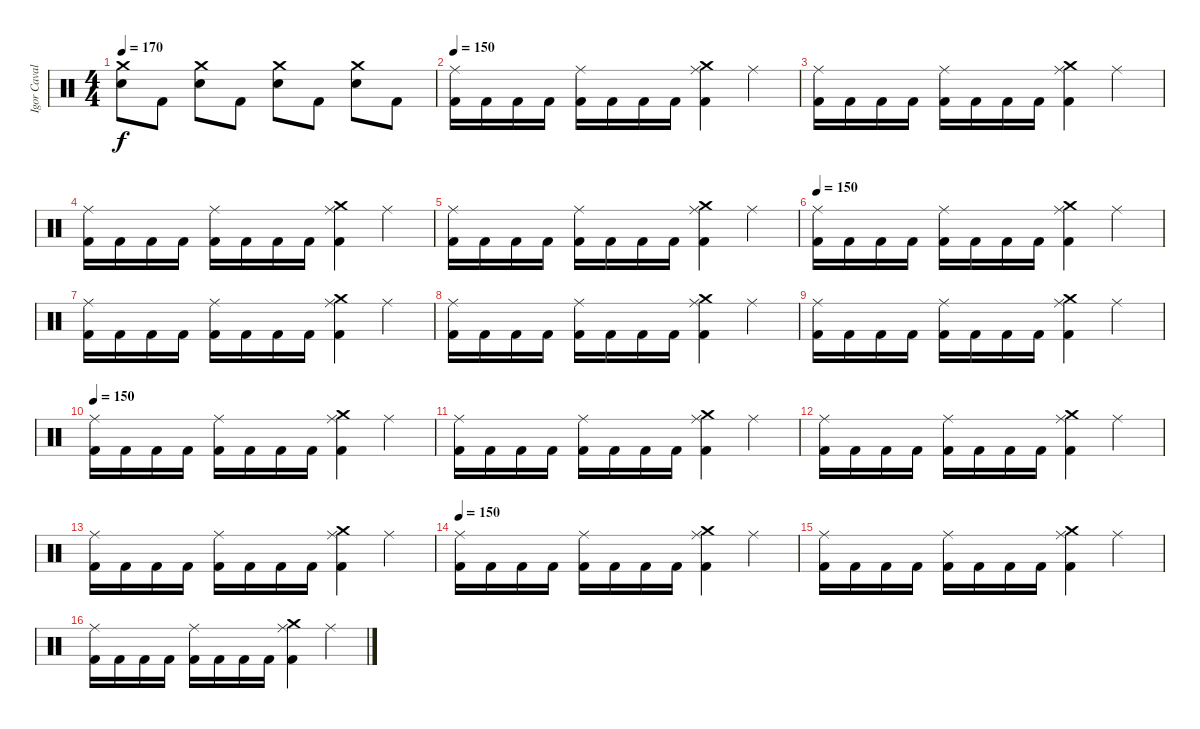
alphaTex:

\track ("Igor Cavalera" "Igor Caval") {instrument percussion}
\staff {score}
\articulation defaults
\ts (4 4)
\tempo 170
\clef neutral
\ks c
("Crash medium (hit)" "Snare (hit) 2").8{dy f} "Kick (hit) 2".8 ("Crash medium (hit)" "Snare (hit) 2").8 "Kick (hit) 2".8 ("Crash medium (hit)" "Snare (hit) 2").8 "Kick (hit) 2".8 ("Crash medium (hit)" "Snare (hit) 2").8 "Kick (hit) 2".8 |
\tempo 150
("Ride (middle)" "Kick (hit) 2").16 "Kick (hit) 2".16 "Kick (hit) 2".16 "Kick (hit) 2".16 ("Ride (middle)" "Kick (hit) 2").16 "Kick (hit) 2".16 "Kick (hit) 2".16 "Kick (hit) 2".16 ("Crash medium (hit)" "Ride (middle)" "Kick (hit) 2").4 "Ride (middle)".4 |
("Ride (middle)" "Kick (hit) 2").16 "Kick (hit) 2".16 "Kick (hit) 2".16 "Kick (hit) 2".16 ("Ride (middle)" "Kick (hit) 2").16 "Kick (hit) 2".16 "Kick (hit) 2".16 "Kick (hit) 2".16 ("Crash medium (hit)" "Ride (middle)" "Kick (hit) 2").4 "Ride (middle)".4 |
("Ride (middle)" "Kick (hit) 2").16 "Kick (hit) 2".16 "Kick (hit) 2".16 "Kick (hit) 2".16 ("Ride (middle)" "Kick (hit) 2").16 "Kick (hit) 2".16 "Kick (hit) 2".16 "Kick (hit) 2".16 ("Crash medium (hit)" "Ride (middle)" "Kick (hit) 2").4 "Ride (middle)".4 |
("Ride (middle)" "Kick (hit) 2").16 "Kick (hit) 2".16 "Kick (hit) 2".16 "Kick (hit) 2".16 ("Ride (middle)" "Kick (hit) 2").16 "Kick (hit) 2".16 "Kick (hit) 2".16 "Kick (hit) 2".16 ("Crash medium (hit)" "Ride (middle)" "Kick (hit) 2").4 "Ride (middle)".4 |
\tempo 150
("Ride (middle)" "Kick (hit) 2").16 "Kick (hit) 2".16 "Kick (hit) 2".16 "Kick (hit) 2".16 ("Ride (middle)" "Kick (hit) 2").16 "Kick (hit) 2".16 "Kick (hit) 2".16 "Kick (hit) 2".16 ("Crash medium (hit)" "Ride (middle)" "Kick (hit) 2").4 "Ride (middle)".4 |
("Ride (middle)" "Kick (hit) 2").16 "Kick (hit) 2".16 "Kick (hit) 2".16 "Kick (hit) 2".16 ("Ride (middle)" "Kick (hit) 2").16 "Kick (hit) 2".16 "Kick (hit) 2".16 "Kick (hit) 2".16 ("Crash medium (hit)" "Ride (middle)" "Kick (hit) 2").4 "Ride (middle)".4 |
("Ride (middle)" "Kick (hit) 2").16 "Kick (hit) 2".16 "Kick (hit) 2".16 "Kick (hit) 2".16 ("Ride (middle)" "Kick (hit) 2").16 "Kick (hit) 2".16 "Kick (hit) 2".16 "Kick (hit) 2".16 ("Crash medium (hit)" "Ride (middle)" "Kick (hit) 2").4 "Ride (middle)".4 |
("Ride (middle)" "Kick (hit) 2").16 "Kick (hit) 2".16 "Kick (hit) 2".16 "Kick (hit) 2".16 ("Ride (middle)" "Kick (hit) 2").16 "Kick (hit) 2".16 "Kick (hit) 2".16 "Kick (hit) 2".16 ("Crash medium (hit)" "Ride (middle)" "Kick (hit) 2").4 "Ride (middle)".4 |
\tempo 150
("Ride (middle)" "Kick (hit) 2").16 "Kick (hit) 2".16 "Kick (hit) 2".16 "Kick (hit) 2".16 ("Ride (middle)" "Kick (hit) 2").16 "Kick (hit) 2".16 "Kick (hit) 2".16 "Kick (hit) 2".16 ("Crash medium (hit)" "Ride (middle)" "Kick (hit) 2").4 "Ride (middle)".4 |
("Ride (middle)" "Kick (hit) 2").16 "Kick (hit) 2".16 "Kick (hit) 2".16 "Kick (hit) 2".16 ("Ride (middle)" "Kick (hit) 2").16 "Kick (hit) 2".16 "Kick (hit) 2".16 "Kick (hit) 2".16 ("Crash medium (hit)" "Ride (middle)" "Kick (hit) 2").4 "Ride (middle)".4 |
("Ride (middle)" "Kick (hit) 2").16 "Kick (hit) 2".16 "Kick (hit) 2".16 "Kick (hit) 2".16 ("Ride (middle)" "Kick (hit) 2").16 "Kick (hit) 2".16 "Kick (hit) 2".16 "Kick (hit) 2".16 ("Crash medium (hit)" "Ride (middle)" "Kick (hit) 2").4 "Ride (middle)".4 |
("Ride (middle)" "Kick (hit) 2").16 "Kick (hit) 2".16 "Kick (hit) 2".16 "Kick (hit) 2".16 ("Ride (middle)" "Kick (hit) 2").16 "Kick (hit) 2".16 "Kick (hit) 2".16 "Kick (hit) 2".16 ("Crash medium (hit)" "Ride (middle)" "Kick (hit) 2").4 "Ride (middle)".4 |
\tempo 150
("Ride (middle)" "Kick (hit) 2").16 "Kick (hit) 2".16 "Kick (hit) 2".16 "Kick (hit) 2".16 ("Ride (middle)" "Kick (hit) 2").16 "Kick (hit) 2".16 "Kick (hit) 2".16 "Kick (hit) 2".16 ("Crash medium (hit)" "Ride (middle)" "Kick (hit) 2").4 "Ride (middle)".4 |
("Ride (middle)" "Kick (hit) 2").16 "Kick (hit) 2".16 "Kick (hit) 2".16 "Kick (hit) 2".16 ("Ride (middle)" "Kick (hit) 2").16 "Kick (hit) 2".16 "Kick (hit) 2".16 "Kick (hit) 2".16 ("Crash medium (hit)" "Ride (middle)" "Kick (hit) 2").4 "Ride (middle)".4 |
("Ride (middle)" "Kick (hit) 2").16 "Kick (hit) 2".16 "Kick (hit) 2".16 "Kick (hit) 2".16 ("Ride (middle)" "Kick (hit) 2").16 "Kick (hit) 2".16 "Kick (hit) 2".16 "Kick (hit) 2".16 ("Crash medium (hit)" "Ride (middle)" "Kick (hit) 2").4 "Ride (middle)".4
